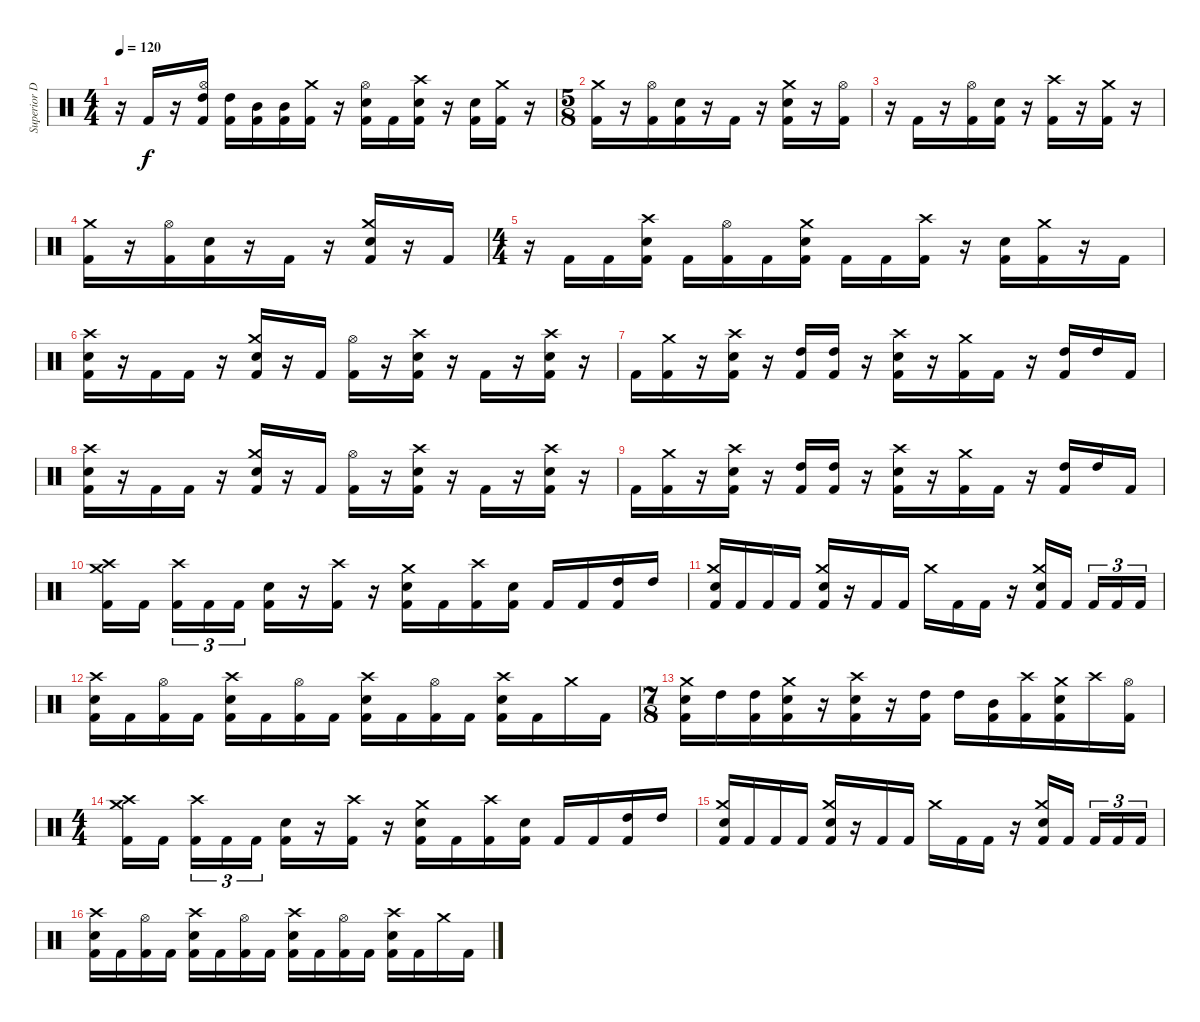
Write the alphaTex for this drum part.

\track ("Superior Drummer 06" "Superior D") {instrument percussion}
\staff {score}
\articulation defaults
\ts (4 4)
\tempo 120
\clef neutral
\ks c
r.16{dy f} "Kick (hit) 2".16 r.16 ("Kick (hit) 2" "Hi-Hat (open)" "High Tom (hit)").16 ("Kick (hit) 2" "High Tom (hit)").16 ("Kick (hit) 2" "Mid Tom (hit)").16 ("Kick (hit) 2" "Mid Tom (hit)").16 ("Kick (hit) 2" "Crash medium (hit)").16 r.16 ("Kick (hit) 2" "Snare (hit) 2" "Hi-Hat (open)").16 "Kick (hit) 2".16 ("Kick (hit) 2" "Snare (hit) 2" "Crash high (hit)").16 r.16 ("Kick (hit) 2" "Snare (hit) 2").16 ("Kick (hit) 2" "Crash medium (hit)").16 r.16 |
\ts (5 8)
("Kick (hit) 2" "Crash medium (hit)").16 r.16 ("Kick (hit) 2" "Hi-Hat (open)").16 ("Kick (hit) 2" "Snare (hit) 2").16 r.16 "Kick (hit) 2".16 r.16 ("Kick (hit) 2" "Snare (hit) 2" "Crash medium (hit)").16 r.16 ("Kick (hit) 2" "Hi-Hat (open)").16 |
r.16 "Kick (hit) 2".16 r.16 ("Kick (hit) 2" "Hi-Hat (open)").16 ("Kick (hit) 2" "Snare (hit) 2").16 r.16 ("Kick (hit) 2" "Crash high (hit)").16 r.16 ("Kick (hit) 2" "Crash medium (hit)").16 r.16 |
("Kick (hit) 2" "Crash medium (hit)").16 r.16 ("Kick (hit) 2" "Hi-Hat (open)").16 ("Kick (hit) 2" "Snare (hit) 2").16 r.16 "Kick (hit) 2".16 r.16 ("Kick (hit) 2" "Snare (hit) 2" "Crash medium (hit)").16 r.16 "Kick (hit) 2".16 |
\ts (4 4)
r.16 "Kick (hit) 2".16 "Kick (hit) 2".16 ("Kick (hit) 2" "Snare (hit) 2" "Crash high (hit)").16 "Kick (hit) 2".16 ("Kick (hit) 2" "Hi-Hat (open)").16 "Kick (hit) 2".16 ("Kick (hit) 2" "Snare (hit) 2" "Crash medium (hit)").16 "Kick (hit) 2".16 "Kick (hit) 2".16 ("Kick (hit) 2" "Crash high (hit)").16 r.16 ("Kick (hit) 2" "Snare (hit) 2").16 ("Kick (hit) 2" "Crash medium (hit)").16 r.16 "Kick (hit) 2".16 |
("Kick (hit) 2" "Snare (hit) 2" "Crash high (hit)").16 r.16 "Kick (hit) 2".16 "Kick (hit) 2".16 r.16 ("Kick (hit) 2" "Snare (hit) 2" "Crash medium (hit)").16 r.16 "Kick (hit) 2".16 ("Kick (hit) 2" "Hi-Hat (open)").16 r.16 ("Kick (hit) 2" "Snare (hit) 2" "Crash high (hit)").16 r.16 "Kick (hit) 2".16 r.16 ("Kick (hit) 2" "Snare (hit) 2" "Crash high (hit)").16 r.16 |
"Kick (hit) 2".16 ("Kick (hit) 2" "Crash medium (hit)").16 r.16 ("Kick (hit) 2" "Snare (hit) 2" "Crash high (hit)").16 r.16 ("Kick (hit) 2" "High Tom (hit)").16 ("Kick (hit) 2" "High Tom (hit)").16 r.16 ("Kick (hit) 2" "Snare (hit) 2" "Crash high (hit)").16 r.16 ("Kick (hit) 2" "Crash medium (hit)").16 "Kick (hit) 2".16 r.16 ("Kick (hit) 2" "High Tom (hit)").16 "High Tom (hit)".16 "Kick (hit) 2".16 |
("Kick (hit) 2" "Snare (hit) 2" "Crash high (hit)").16 r.16 "Kick (hit) 2".16 "Kick (hit) 2".16 r.16 ("Kick (hit) 2" "Snare (hit) 2" "Crash medium (hit)").16 r.16 "Kick (hit) 2".16 ("Kick (hit) 2" "Hi-Hat (open)").16 r.16 ("Kick (hit) 2" "Snare (hit) 2" "Crash high (hit)").16 r.16 "Kick (hit) 2".16 r.16 ("Kick (hit) 2" "Snare (hit) 2" "Crash high (hit)").16 r.16 |
"Kick (hit) 2".16 ("Kick (hit) 2" "Crash medium (hit)").16 r.16 ("Kick (hit) 2" "Snare (hit) 2" "Crash high (hit)").16 r.16 ("Kick (hit) 2" "High Tom (hit)").16 ("Kick (hit) 2" "High Tom (hit)").16 r.16 ("Kick (hit) 2" "Snare (hit) 2" "Crash high (hit)").16 r.16 ("Kick (hit) 2" "Crash medium (hit)").16 "Kick (hit) 2".16 r.16 ("Kick (hit) 2" "High Tom (hit)").16 "High Tom (hit)".16 "Kick (hit) 2".16 |
("Kick (hit) 2" "Crash high (hit)" "Crash medium (hit)").16 "Kick (hit) 2".16{beam splitsecondary} ("Kick (hit) 2" "Crash high (hit)").16{tu (3 2)} "Kick (hit) 2".16{tu (3 2)} "Kick (hit) 2".16{tu (3 2)} ("Kick (hit) 2" "Snare (hit) 2").16 r.16 ("Kick (hit) 2" "Crash high (hit)").16 r.16 ("Kick (hit) 2" "Snare (hit) 2" "Crash medium (hit)").16 "Kick (hit) 2".16 ("Kick (hit) 2" "Crash high (hit)").16 ("Kick (hit) 2" "Snare (hit) 2").16 "Kick (hit) 2".16 "Kick (hit) 2".16 ("Kick (hit) 2" "High Tom (hit)").16 "High Tom (hit)".16 |
("Kick (hit) 2" "Snare (hit) 2" "Crash medium (hit)").16 "Kick (hit) 2".16 "Kick (hit) 2".16 "Kick (hit) 2".16 ("Kick (hit) 2" "Snare (hit) 2" "Crash medium (hit)").16 r.16 "Kick (hit) 2".16 "Kick (hit) 2".16 "Crash medium (hit)".16 "Kick (hit) 2".16 "Kick (hit) 2".16 r.16 ("Kick (hit) 2" "Snare (hit) 2" "Crash medium (hit)").16 "Kick (hit) 2".16{beam splitsecondary} "Kick (hit) 2".16{tu (3 2)} "Kick (hit) 2".16{tu (3 2)} "Kick (hit) 2".16{tu (3 2)} |
("Kick (hit) 2" "Snare (hit) 2" "Crash high (hit)").16 "Kick (hit) 2".16 ("Kick (hit) 2" "Hi-Hat (open)").16 "Kick (hit) 2".16 ("Kick (hit) 2" "Snare (hit) 2" "Crash high (hit)").16 "Kick (hit) 2".16 ("Kick (hit) 2" "Hi-Hat (open)").16 "Kick (hit) 2".16 ("Kick (hit) 2" "Snare (hit) 2" "Crash high (hit)").16 "Kick (hit) 2".16 ("Kick (hit) 2" "Hi-Hat (open)").16 "Kick (hit) 2".16 ("Kick (hit) 2" "Snare (hit) 2" "Crash high (hit)").16 "Kick (hit) 2".16 "Crash medium (hit)".16 "Kick (hit) 2".16 |
\ts (7 8)
("Kick (hit) 2" "Snare (hit) 2" "Crash medium (hit)").16 "High Tom (hit)".16 ("Kick (hit) 2" "High Tom (hit)").16 ("Kick (hit) 2" "Snare (hit) 2" "Crash medium (hit)").16 r.16 ("Kick (hit) 2" "Snare (hit) 2" "Crash high (hit)").16 r.16 ("Kick (hit) 2" "High Tom (hit)").16 "High Tom (hit)".16 ("Kick (hit) 2" "Mid Tom (hit)").16 ("Kick (hit) 2" "Crash high (hit)").16 ("Kick (hit) 2" "Snare (hit) 2" "Crash medium (hit)").16 "Crash high (hit)".16 ("Kick (hit) 2" "Hi-Hat (open)").16 |
\ts (4 4)
("Kick (hit) 2" "Crash high (hit)" "Crash medium (hit)").16 "Kick (hit) 2".16{beam splitsecondary} ("Kick (hit) 2" "Crash high (hit)").16{tu (3 2)} "Kick (hit) 2".16{tu (3 2)} "Kick (hit) 2".16{tu (3 2)} ("Kick (hit) 2" "Snare (hit) 2").16 r.16 ("Kick (hit) 2" "Crash high (hit)").16 r.16 ("Kick (hit) 2" "Snare (hit) 2" "Crash medium (hit)").16 "Kick (hit) 2".16 ("Kick (hit) 2" "Crash high (hit)").16 ("Kick (hit) 2" "Snare (hit) 2").16 "Kick (hit) 2".16 "Kick (hit) 2".16 ("Kick (hit) 2" "High Tom (hit)").16 "High Tom (hit)".16 |
("Kick (hit) 2" "Snare (hit) 2" "Crash medium (hit)").16 "Kick (hit) 2".16 "Kick (hit) 2".16 "Kick (hit) 2".16 ("Kick (hit) 2" "Snare (hit) 2" "Crash medium (hit)").16 r.16 "Kick (hit) 2".16 "Kick (hit) 2".16 "Crash medium (hit)".16 "Kick (hit) 2".16 "Kick (hit) 2".16 r.16 ("Kick (hit) 2" "Snare (hit) 2" "Crash medium (hit)").16 "Kick (hit) 2".16{beam splitsecondary} "Kick (hit) 2".16{tu (3 2)} "Kick (hit) 2".16{tu (3 2)} "Kick (hit) 2".16{tu (3 2)} |
("Kick (hit) 2" "Snare (hit) 2" "Crash high (hit)").16 "Kick (hit) 2".16 ("Kick (hit) 2" "Hi-Hat (open)").16 "Kick (hit) 2".16 ("Kick (hit) 2" "Snare (hit) 2" "Crash high (hit)").16 "Kick (hit) 2".16 ("Kick (hit) 2" "Hi-Hat (open)").16 "Kick (hit) 2".16 ("Kick (hit) 2" "Snare (hit) 2" "Crash high (hit)").16 "Kick (hit) 2".16 ("Kick (hit) 2" "Hi-Hat (open)").16 "Kick (hit) 2".16 ("Kick (hit) 2" "Snare (hit) 2" "Crash high (hit)").16 "Kick (hit) 2".16 "Crash medium (hit)".16 "Kick (hit) 2".16
